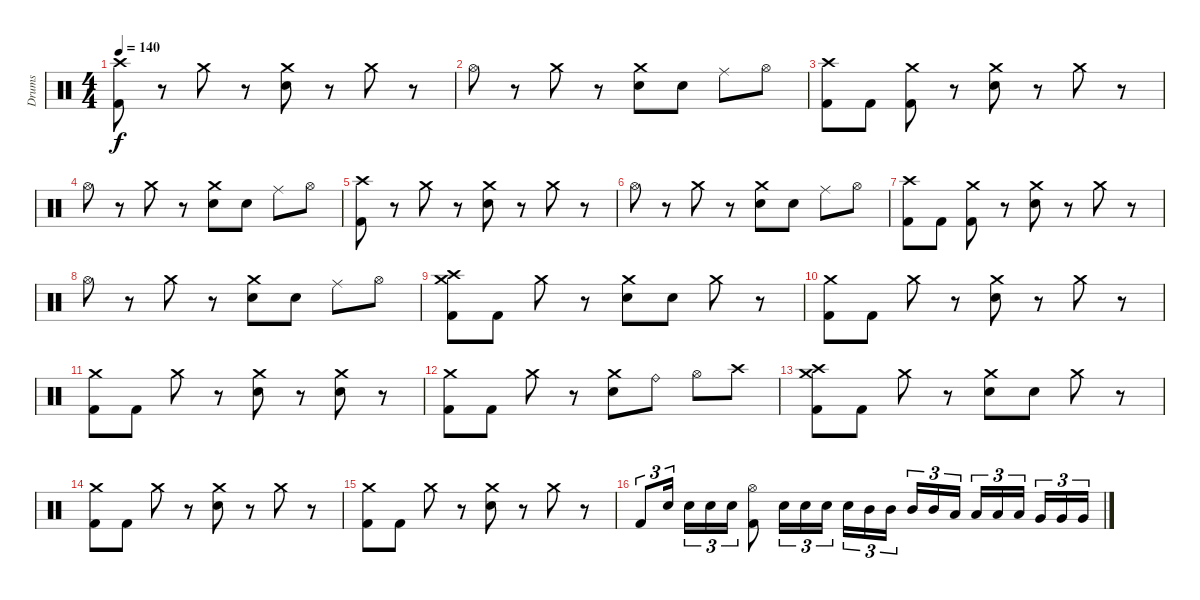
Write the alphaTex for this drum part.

\track ("Drums" "Drums") {instrument percussion}
\staff {score}
\articulation defaults
\ts (4 4)
\tempo 140
\clef neutral
\ks c
("Crash high (hit)" "Kick (hit) 2").8{dy f} r.8 "Crash medium (hit)".8 r.8 ("Crash medium (hit)" "Electric Snare (hit)").8 r.8 "Crash medium (hit)".8 r.8 |
"Hi-Hat (open)".8 r.8 "Crash medium (hit)".8 r.8 ("Crash medium (hit)" "Electric Snare (hit)").8 "Electric Snare (hit)".8 "Ride (middle)".8 "Hi-Hat (open)".8 |
("Crash high (hit)" "Kick (hit) 2").8 "Kick (hit) 2".8 ("Crash medium (hit)" "Kick (hit) 2").8 r.8 ("Crash medium (hit)" "Electric Snare (hit)").8 r.8 "Crash medium (hit)".8 r.8 |
"Hi-Hat (open)".8 r.8 "Crash medium (hit)".8 r.8 ("Crash medium (hit)" "Electric Snare (hit)").8 "Electric Snare (hit)".8 "Ride (middle)".8 "Hi-Hat (open)".8 |
("Crash high (hit)" "Kick (hit) 2").8 r.8 "Crash medium (hit)".8 r.8 ("Crash medium (hit)" "Electric Snare (hit)").8 r.8 "Crash medium (hit)".8 r.8 |
"Hi-Hat (open)".8 r.8 "Crash medium (hit)".8 r.8 ("Crash medium (hit)" "Electric Snare (hit)").8 "Electric Snare (hit)".8 "Ride (middle)".8 "Hi-Hat (open)".8 |
("Crash high (hit)" "Kick (hit) 2").8 "Kick (hit) 2".8 ("Crash medium (hit)" "Kick (hit) 2").8 r.8 ("Crash medium (hit)" "Electric Snare (hit)").8 r.8 "Crash medium (hit)".8 r.8 |
"Hi-Hat (open)".8 r.8 "Crash medium (hit)".8 r.8 ("Crash medium (hit)" "Electric Snare (hit)").8 "Electric Snare (hit)".8 "Ride (middle)".8 "Hi-Hat (open)".8 |
("Crash high (hit)" "Crash medium (hit)" "Kick (hit) 2").8 "Kick (hit) 2".8 "Crash medium (hit)".8 r.8 ("Crash medium (hit)" "Electric Snare (hit)").8 "Electric Snare (hit)".8 "Crash medium (hit)".8 r.8 |
("Crash medium (hit)" "Kick (hit) 2").8 "Kick (hit) 2".8 "Crash medium (hit)".8 r.8 ("Crash medium (hit)" "Electric Snare (hit)").8 r.8 "Crash medium (hit)".8 r.8 |
("Crash medium (hit)" "Kick (hit) 2").8 "Kick (hit) 2".8 "Crash medium (hit)".8 r.8 ("Crash medium (hit)" "Electric Snare (hit)").8 r.8 ("Crash medium (hit)" "Electric Snare (hit)").8 r.8 |
("Crash medium (hit)" "Kick (hit) 2").8 "Kick (hit) 2".8 "Crash medium (hit)".8 r.8 ("Crash medium (hit)" "Electric Snare (hit)").8 "Ride (bell)".8 "Hi-Hat (open)".8 "Crash high (hit)".8 |
("Crash high (hit)" "Crash medium (hit)" "Kick (hit) 2").8 "Kick (hit) 2".8 "Crash medium (hit)".8 r.8 ("Crash medium (hit)" "Electric Snare (hit)").8 "Electric Snare (hit)".8 "Crash medium (hit)".8 r.8 |
("Crash medium (hit)" "Kick (hit) 2").8 "Kick (hit) 2".8 "Crash medium (hit)".8 r.8 ("Crash medium (hit)" "Electric Snare (hit)").8 r.8 "Crash medium (hit)".8 r.8 |
("Crash medium (hit)" "Kick (hit) 2").8 "Kick (hit) 2".8 "Crash medium (hit)".8 r.8 ("Crash medium (hit)" "Electric Snare (hit)").8 r.8 "Crash medium (hit)".8 r.8 |
"Kick (hit) 2".8{tu (3 2)} "Electric Snare (hit)".16{tu (3 2) beam splitsecondary} "Electric Snare (hit)".16{tu (3 2)} "Electric Snare (hit)".16{tu (3 2)} "Electric Snare (hit)".16{tu (3 2)} ("Hi-Hat (open)" "Kick (hit) 2").8 "Electric Snare (hit)".16{tu (3 2)} "Electric Snare (hit)".16{tu (3 2)} "Electric Snare (hit)".16{tu (3 2)} "Electric Snare (hit)".16{tu (3 2)} "Mid Tom (hit)".16{tu (3 2)} "Mid Tom (hit)".16{tu (3 2) beam splitsecondary} "Mid Tom (hit)".16{tu (3 2)} "Mid Tom (hit)".16{tu (3 2)} "Low Tom (hit)".16{tu (3 2)} "Low Tom (hit)".16{tu (3 2)} "Low Tom (hit)".16{tu (3 2)} "Low Tom (hit)".16{tu (3 2) beam splitsecondary} "Very Low Tom (hit)".16{tu (3 2)} "Very Low Tom (hit)".16{tu (3 2)} "Very Low Tom (hit)".16{tu (3 2)}
